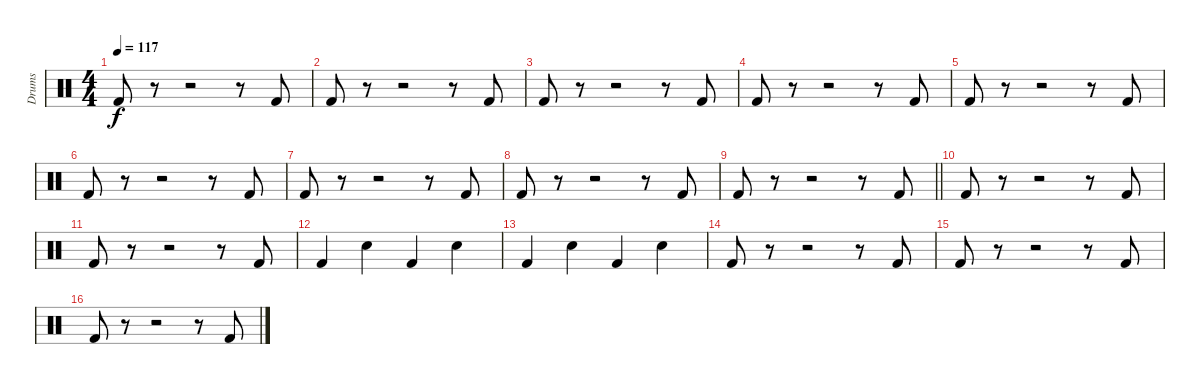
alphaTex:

\track ("Drums" "Drums") {instrument percussion}
\staff {score}
\articulation defaults
\ts (4 4)
\tempo 117
\clef neutral
\ks c "Kick (hit) 2".8{dy f}
r.8 r.2 r.8 "Kick (hit) 2".8 |
"Kick (hit) 2".8 r.8 r.2 r.8 "Kick (hit) 2".8 |
"Kick (hit) 2".8 r.8 r.2 r.8 "Kick (hit) 2".8 |
"Kick (hit) 2".8 r.8 r.2 r.8 "Kick (hit) 2".8 |
"Kick (hit) 2".8 r.8 r.2 r.8 "Kick (hit) 2".8 |
"Kick (hit) 2".8 r.8 r.2 r.8 "Kick (hit) 2".8 |
"Kick (hit) 2".8 r.8 r.2 r.8 "Kick (hit) 2".8 |
"Kick (hit) 2".8 r.8 r.2 r.8 "Kick (hit) 2".8 |
\barLineRight lightlight "Kick (hit) 2".8
r.8 r.2 r.8 "Kick (hit) 2".8 |
"Kick (hit) 2".8 r.8 r.2 r.8 "Kick (hit) 2".8 |
"Kick (hit) 2".8 r.8 r.2 r.8 "Kick (hit) 2".8 |
"Kick (hit) 2".4 "Snare (hit) 2".4 "Kick (hit) 2".4 "Snare (hit) 2".4 |
"Kick (hit) 2".4 "Snare (hit) 2".4 "Kick (hit) 2".4 "Snare (hit) 2".4 |
"Kick (hit) 2".8 r.8 r.2 r.8 "Kick (hit) 2".8 |
"Kick (hit) 2".8 r.8 r.2 r.8 "Kick (hit) 2".8 |
"Kick (hit) 2".8 r.8 r.2 r.8 "Kick (hit) 2".8
